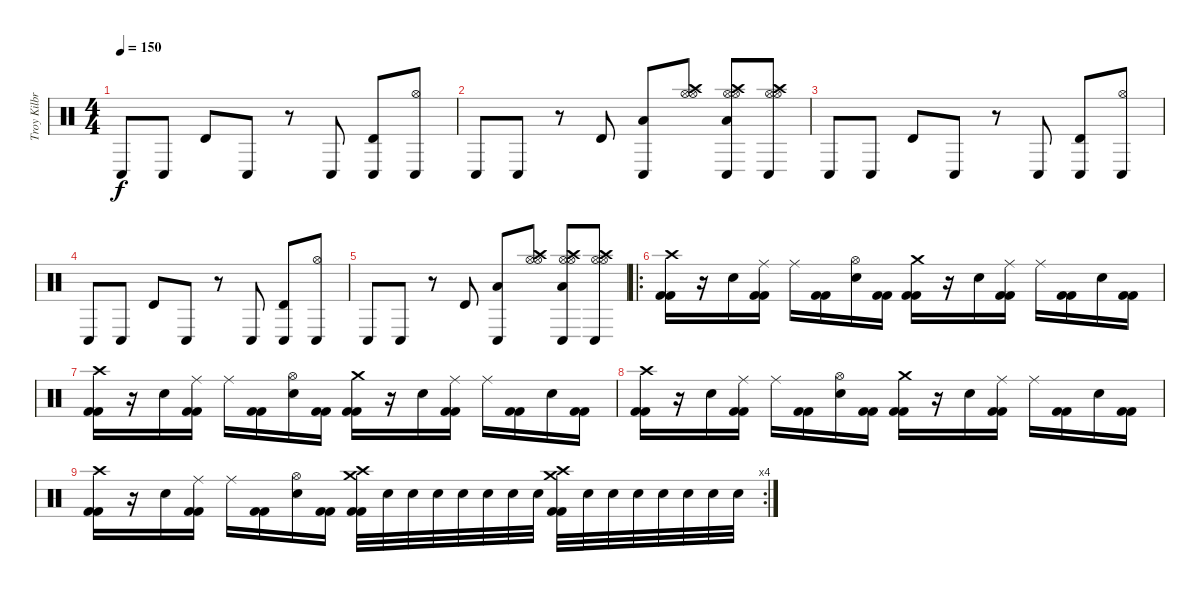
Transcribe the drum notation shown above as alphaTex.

\track ("Troy Kilbride" "Troy Kilbr") {instrument percussion}
\staff {score}
\articulation defaults
\ts (4 4)
\tempo 150
\clef neutral
\ks c "Conga low (hit)".8{dy f} "Conga low (hit)".8 "Timbale high (hit)".8 "Conga low (hit)".8
r.8 "Conga low (hit)".8 ("Conga low (hit)" "Timbale high (hit)").8 ("Conga low (hit)" "Hi-Hat (open)").8 |
"Conga low (hit)".8 "Conga low (hit)".8 r.8 "Timbale high (hit)".8 ("Conga low (hit)" "Low Tom (hit)").8 ("Hi-Hat (open)" "Crash high (hit)" "Hi-Hat (open)").8 ("Conga low (hit)" "Low Tom (hit)" "Crash high (hit)" "Hi-Hat (open)" "Hi-Hat (open)").8 ("Conga low (hit)" "Crash high (hit)" "Hi-Hat (open)" "Hi-Hat (open)").8 |
"Conga low (hit)".8 "Conga low (hit)".8 "Timbale high (hit)".8 "Conga low (hit)".8 r.8 "Conga low (hit)".8 ("Conga low (hit)" "Timbale high (hit)").8 ("Conga low (hit)" "Hi-Hat (open)").8 |
"Conga low (hit)".8 "Conga low (hit)".8 "Timbale high (hit)".8 "Conga low (hit)".8 r.8 "Conga low (hit)".8 ("Conga low (hit)" "Timbale high (hit)").8 ("Conga low (hit)" "Hi-Hat (open)").8 |
"Conga low (hit)".8 "Conga low (hit)".8 r.8 "Timbale high (hit)".8 ("Conga low (hit)" "Low Tom (hit)").8 ("Hi-Hat (open)" "Crash high (hit)" "Hi-Hat (open)").8 ("Conga low (hit)" "Low Tom (hit)" "Crash high (hit)" "Hi-Hat (open)" "Hi-Hat (open)").8 ("Conga low (hit)" "Crash high (hit)" "Hi-Hat (open)" "Hi-Hat (open)").8 |
\ro
("Crash high (hit)" "Kick (hit) 2" "Kick (hit) 2").16 r.16 "Electric Snare (hit)".16 ("Ride (middle)" "Kick (hit) 2" "Kick (hit) 2").16 "Ride (middle)".16 ("Kick (hit) 2" "Kick (hit) 2").16 ("Hi-Hat (open)" "Electric Snare (hit)").16 ("Kick (hit) 2" "Kick (hit) 2").16 ("Crash medium (hit)" "Kick (hit) 2" "Kick (hit) 2").16 r.16 "Electric Snare (hit)".16 ("Ride (middle)" "Kick (hit) 2" "Kick (hit) 2").16 "Ride (middle)".16 ("Kick (hit) 2" "Kick (hit) 2").16 "Electric Snare (hit)".16 ("Kick (hit) 2" "Kick (hit) 2").16 |
("Crash high (hit)" "Kick (hit) 2" "Kick (hit) 2").16 r.16 "Electric Snare (hit)".16 ("Ride (middle)" "Kick (hit) 2" "Kick (hit) 2").16 "Ride (middle)".16 ("Kick (hit) 2" "Kick (hit) 2").16 ("Hi-Hat (open)" "Electric Snare (hit)").16 ("Kick (hit) 2" "Kick (hit) 2").16 ("Crash medium (hit)" "Kick (hit) 2" "Kick (hit) 2").16 r.16 "Electric Snare (hit)".16 ("Ride (middle)" "Kick (hit) 2" "Kick (hit) 2").16 "Ride (middle)".16 ("Kick (hit) 2" "Kick (hit) 2").16 "Electric Snare (hit)".16 ("Kick (hit) 2" "Kick (hit) 2").16 |
("Crash high (hit)" "Kick (hit) 2" "Kick (hit) 2").16 r.16 "Electric Snare (hit)".16 ("Ride (middle)" "Kick (hit) 2" "Kick (hit) 2").16 "Ride (middle)".16 ("Kick (hit) 2" "Kick (hit) 2").16 ("Hi-Hat (open)" "Electric Snare (hit)").16 ("Kick (hit) 2" "Kick (hit) 2").16 ("Crash medium (hit)" "Kick (hit) 2" "Kick (hit) 2").16 r.16 "Electric Snare (hit)".16 ("Ride (middle)" "Kick (hit) 2" "Kick (hit) 2").16 "Ride (middle)".16 ("Kick (hit) 2" "Kick (hit) 2").16 "Electric Snare (hit)".16 ("Kick (hit) 2" "Kick (hit) 2").16 |
\rc 4
("Crash high (hit)" "Kick (hit) 2" "Kick (hit) 2").16 r.16 "Electric Snare (hit)".16 ("Ride (middle)" "Kick (hit) 2" "Kick (hit) 2").16 "Ride (middle)".16 ("Kick (hit) 2" "Kick (hit) 2").16 ("Hi-Hat (open)" "Electric Snare (hit)").16 ("Kick (hit) 2" "Kick (hit) 2").16 ("Crash high (hit)" "Crash medium (hit)" "Kick (hit) 2" "Kick (hit) 2").32 "Electric Snare (hit)".32 "Electric Snare (hit)".32 "Electric Snare (hit)".32 "Electric Snare (hit)".32 "Electric Snare (hit)".32 "Electric Snare (hit)".32 "Electric Snare (hit)".32 ("Crash high (hit)" "Crash medium (hit)" "Kick (hit) 2" "Kick (hit) 2").32 "Electric Snare (hit)".32 "Electric Snare (hit)".32 "Electric Snare (hit)".32 "Electric Snare (hit)".32 "Electric Snare (hit)".32 "Electric Snare (hit)".32 "Electric Snare (hit)".32
